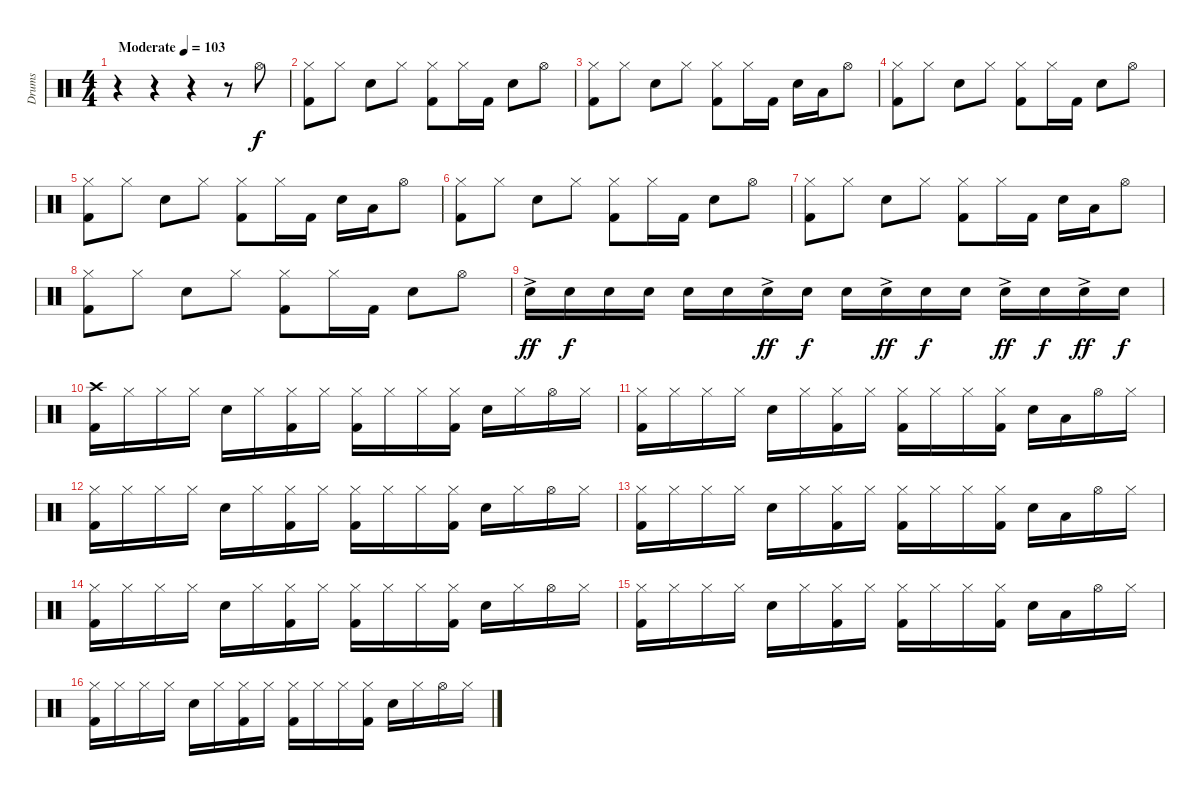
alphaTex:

\track ("Drums" "Drums") {instrument percussion}
\staff {score}
\articulation defaults
\ts (4 4)
\tempo (103 "Moderate")
\clef neutral
\ks c
r.4{dy f} r.4 r.4 r.8 "Hi-Hat (open)".8 |
("Hi-Hat (closed)" "Kick (hit) 2").8 "Hi-Hat (closed)".8 "Snare (hit) 2".8 "Hi-Hat (closed)".8 ("Hi-Hat (closed)" "Kick (hit) 2").8 "Hi-Hat (closed)".16 "Kick (hit) 2".16 "Snare (hit) 2".8 "Hi-Hat (open)".8 |
("Hi-Hat (closed)" "Kick (hit) 2").8 "Hi-Hat (closed)".8 "Snare (hit) 2".8 "Hi-Hat (closed)".8 ("Hi-Hat (closed)" "Kick (hit) 2").8 "Hi-Hat (closed)".16 "Kick (hit) 2".16 "Snare (hit) 2".16 "Low Floor Tom (hit)".16 "Hi-Hat (open)".8 |
("Hi-Hat (closed)" "Kick (hit) 2").8 "Hi-Hat (closed)".8 "Snare (hit) 2".8 "Hi-Hat (closed)".8 ("Hi-Hat (closed)" "Kick (hit) 2").8 "Hi-Hat (closed)".16 "Kick (hit) 2".16 "Snare (hit) 2".8 "Hi-Hat (open)".8 |
("Hi-Hat (closed)" "Kick (hit) 2").8 "Hi-Hat (closed)".8 "Snare (hit) 2".8 "Hi-Hat (closed)".8 ("Hi-Hat (closed)" "Kick (hit) 2").8 "Hi-Hat (closed)".16 "Kick (hit) 2".16 "Snare (hit) 2".16 "Low Floor Tom (hit)".16 "Hi-Hat (open)".8 |
("Hi-Hat (closed)" "Kick (hit) 2").8 "Hi-Hat (closed)".8 "Snare (hit) 2".8 "Hi-Hat (closed)".8 ("Hi-Hat (closed)" "Kick (hit) 2").8 "Hi-Hat (closed)".16 "Kick (hit) 2".16 "Snare (hit) 2".8 "Hi-Hat (open)".8 |
("Hi-Hat (closed)" "Kick (hit) 2").8 "Hi-Hat (closed)".8 "Snare (hit) 2".8 "Hi-Hat (closed)".8 ("Hi-Hat (closed)" "Kick (hit) 2").8 "Hi-Hat (closed)".16 "Kick (hit) 2".16 "Snare (hit) 2".16 "Low Floor Tom (hit)".16 "Hi-Hat (open)".8 |
("Hi-Hat (closed)" "Kick (hit) 2").8 "Hi-Hat (closed)".8 "Snare (hit) 2".8 "Hi-Hat (closed)".8 ("Hi-Hat (closed)" "Kick (hit) 2").8 "Hi-Hat (closed)".16 "Kick (hit) 2".16 "Snare (hit) 2".8 "Hi-Hat (open)".8 |
"Snare (hit) 2"{ac}.16{dy ff} "Snare (hit) 2".16{dy f} "Snare (hit) 2".16 "Snare (hit) 2".16 "Snare (hit) 2".16 "Snare (hit) 2".16 "Snare (hit) 2"{ac}.16{dy ff} "Snare (hit) 2".16{dy f} "Snare (hit) 2".16 "Snare (hit) 2"{ac}.16{dy ff} "Snare (hit) 2".16{dy f} "Snare (hit) 2".16 "Snare (hit) 2"{ac}.16{dy ff} "Snare (hit) 2".16{dy f} "Snare (hit) 2"{ac}.16{dy ff} "Snare (hit) 2".16{dy f} |
("Crash high (hit)" "Kick (hit) 2").16 "Hi-Hat (closed)".16 "Hi-Hat (closed)".16 "Hi-Hat (closed)".16 "Snare (hit) 2".16 "Hi-Hat (closed)".16 ("Hi-Hat (closed)" "Kick (hit) 2").16 "Hi-Hat (closed)".16 ("Hi-Hat (closed)" "Kick (hit) 2").16 "Hi-Hat (closed)".16 "Hi-Hat (closed)".16 ("Hi-Hat (closed)" "Kick (hit) 2").16 "Snare (hit) 2".16 "Hi-Hat (closed)".16 "Hi-Hat (open)".16 "Hi-Hat (closed)".16 |
("Hi-Hat (closed)" "Kick (hit) 2").16 "Hi-Hat (closed)".16 "Hi-Hat (closed)".16 "Hi-Hat (closed)".16 "Snare (hit) 2".16 "Hi-Hat (closed)".16 ("Hi-Hat (closed)" "Kick (hit) 2").16 "Hi-Hat (closed)".16 ("Hi-Hat (closed)" "Kick (hit) 2").16 "Hi-Hat (closed)".16 "Hi-Hat (closed)".16 ("Hi-Hat (closed)" "Kick (hit) 2").16 "Snare (hit) 2".16 "Low Floor Tom (hit)".16 "Hi-Hat (open)".16 "Hi-Hat (closed)".16 |
("Hi-Hat (closed)" "Kick (hit) 2").16 "Hi-Hat (closed)".16 "Hi-Hat (closed)".16 "Hi-Hat (closed)".16 "Snare (hit) 2".16 "Hi-Hat (closed)".16 ("Hi-Hat (closed)" "Kick (hit) 2").16 "Hi-Hat (closed)".16 ("Hi-Hat (closed)" "Kick (hit) 2").16 "Hi-Hat (closed)".16 "Hi-Hat (closed)".16 ("Hi-Hat (closed)" "Kick (hit) 2").16 "Snare (hit) 2".16 "Hi-Hat (closed)".16 "Hi-Hat (open)".16 "Hi-Hat (closed)".16 |
("Hi-Hat (closed)" "Kick (hit) 2").16 "Hi-Hat (closed)".16 "Hi-Hat (closed)".16 "Hi-Hat (closed)".16 "Snare (hit) 2".16 "Hi-Hat (closed)".16 ("Hi-Hat (closed)" "Kick (hit) 2").16 "Hi-Hat (closed)".16 ("Hi-Hat (closed)" "Kick (hit) 2").16 "Hi-Hat (closed)".16 "Hi-Hat (closed)".16 ("Hi-Hat (closed)" "Kick (hit) 2").16 "Snare (hit) 2".16 "Low Floor Tom (hit)".16 "Hi-Hat (open)".16 "Hi-Hat (closed)".16 |
("Hi-Hat (closed)" "Kick (hit) 2").16 "Hi-Hat (closed)".16 "Hi-Hat (closed)".16 "Hi-Hat (closed)".16 "Snare (hit) 2".16 "Hi-Hat (closed)".16 ("Hi-Hat (closed)" "Kick (hit) 2").16 "Hi-Hat (closed)".16 ("Hi-Hat (closed)" "Kick (hit) 2").16 "Hi-Hat (closed)".16 "Hi-Hat (closed)".16 ("Hi-Hat (closed)" "Kick (hit) 2").16 "Snare (hit) 2".16 "Hi-Hat (closed)".16 "Hi-Hat (open)".16 "Hi-Hat (closed)".16 |
("Hi-Hat (closed)" "Kick (hit) 2").16 "Hi-Hat (closed)".16 "Hi-Hat (closed)".16 "Hi-Hat (closed)".16 "Snare (hit) 2".16 "Hi-Hat (closed)".16 ("Hi-Hat (closed)" "Kick (hit) 2").16 "Hi-Hat (closed)".16 ("Hi-Hat (closed)" "Kick (hit) 2").16 "Hi-Hat (closed)".16 "Hi-Hat (closed)".16 ("Hi-Hat (closed)" "Kick (hit) 2").16 "Snare (hit) 2".16 "Low Floor Tom (hit)".16 "Hi-Hat (open)".16 "Hi-Hat (closed)".16 |
("Hi-Hat (closed)" "Kick (hit) 2").16 "Hi-Hat (closed)".16 "Hi-Hat (closed)".16 "Hi-Hat (closed)".16 "Snare (hit) 2".16 "Hi-Hat (closed)".16 ("Hi-Hat (closed)" "Kick (hit) 2").16 "Hi-Hat (closed)".16 ("Hi-Hat (closed)" "Kick (hit) 2").16 "Hi-Hat (closed)".16 "Hi-Hat (closed)".16 ("Hi-Hat (closed)" "Kick (hit) 2").16 "Snare (hit) 2".16 "Hi-Hat (closed)".16 "Hi-Hat (open)".16 "Hi-Hat (closed)".16
